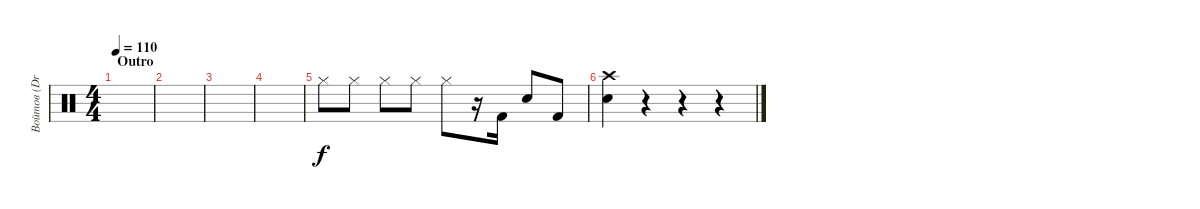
\track ("Войтов (Drums)" "Войтов (Dr") {instrument percussion}
\staff {score}
\articulation defaults
\ts (4 4)
\section ("" "Outro")
\tempo 110
\clef neutral
\ks c
|
|
|
|
"Hi-Hat (closed)".8 "Hi-Hat (closed)".8 "Hi-Hat (closed)".8 "Hi-Hat (closed)".8 "Hi-Hat (closed)".8 r.16 "Kick (hit) 2".16 "Electric Snare (hit)".8 "Kick (hit) 2".8 |
("Crash high (hit)" "Electric Snare (hit)").4 r.4 r.4 r.4
